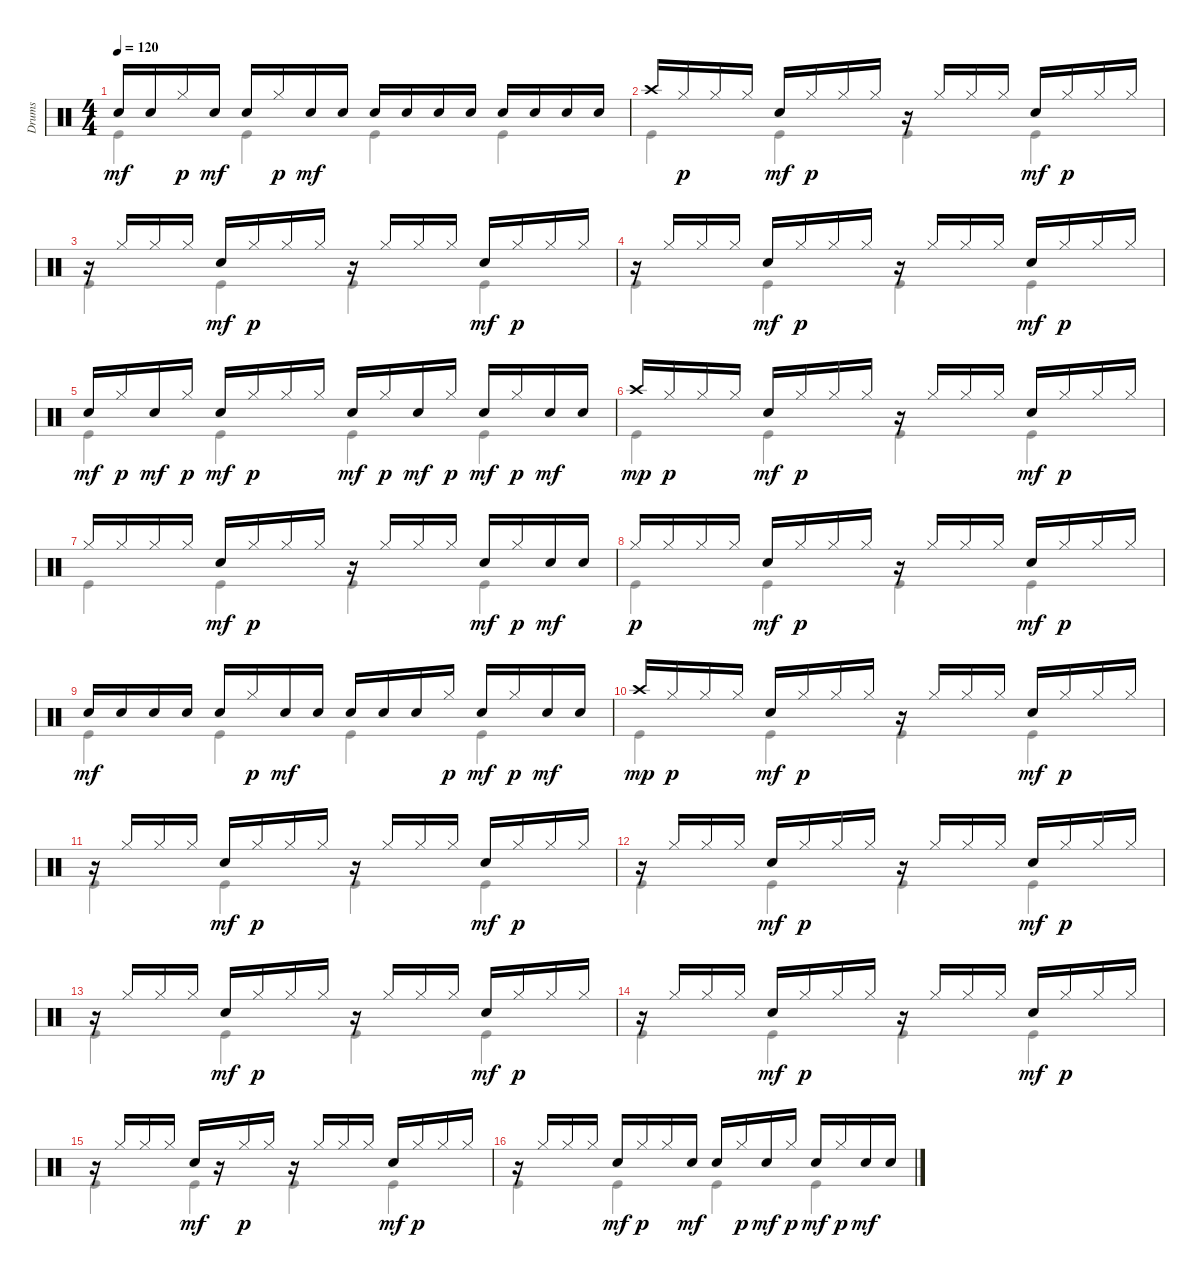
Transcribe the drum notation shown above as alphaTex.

\track ("Drums" "Drums") {instrument percussion}
\staff {score}
\articulation defaults
\voice
\ts (4 4)
\tempo 120
\clef neutral
\ks c "Snare (hit) 2".16{dy mf} "Snare (hit) 2".16 "Hi-Hat (closed)".16{dy p} "Snare (hit) 2".16{dy mf} "Snare (hit) 2".16 "Hi-Hat (closed)".16{dy p} "Snare (hit) 2".16{dy mf} "Snare (hit) 2".16 "Snare (hit) 2".16 "Snare (hit) 2".16 "Snare (hit) 2".16 "Snare (hit) 2".16 "Snare (hit) 2".16 "Snare (hit) 2".16 "Snare (hit) 2".16 "Snare (hit) 2".16
|
"Crash high (hit)".16 "Hi-Hat (closed)".16{dy p} "Hi-Hat (closed)".16 "Hi-Hat (closed)".16 "Snare (hit) 2".16{dy mf} "Hi-Hat (closed)".16{dy p} "Hi-Hat (closed)".16 "Hi-Hat (closed)".16 r.16 "Hi-Hat (closed)".16 "Hi-Hat (closed)".16 "Hi-Hat (closed)".16 "Snare (hit) 2".16{dy mf} "Hi-Hat (closed)".16{dy p} "Hi-Hat (closed)".16 "Hi-Hat (closed)".16 |
r.16 "Hi-Hat (closed)".16 "Hi-Hat (closed)".16 "Hi-Hat (closed)".16 "Snare (hit) 2".16{dy mf} "Hi-Hat (closed)".16{dy p} "Hi-Hat (closed)".16 "Hi-Hat (closed)".16 r.16 "Hi-Hat (closed)".16 "Hi-Hat (closed)".16 "Hi-Hat (closed)".16 "Snare (hit) 2".16{dy mf} "Hi-Hat (closed)".16{dy p} "Hi-Hat (closed)".16 "Hi-Hat (closed)".16 |
r.16 "Hi-Hat (closed)".16 "Hi-Hat (closed)".16 "Hi-Hat (closed)".16 "Snare (hit) 2".16{dy mf} "Hi-Hat (closed)".16{dy p} "Hi-Hat (closed)".16 "Hi-Hat (closed)".16 r.16 "Hi-Hat (closed)".16 "Hi-Hat (closed)".16 "Hi-Hat (closed)".16 "Snare (hit) 2".16{dy mf} "Hi-Hat (closed)".16{dy p} "Hi-Hat (closed)".16 "Hi-Hat (closed)".16 |
"Snare (hit) 2".16{dy mf} "Hi-Hat (closed)".16{dy p} "Snare (hit) 2".16{dy mf} "Hi-Hat (closed)".16{dy p} "Snare (hit) 2".16{dy mf} "Hi-Hat (closed)".16{dy p} "Hi-Hat (closed)".16 "Hi-Hat (closed)".16 "Snare (hit) 2".16{dy mf} "Hi-Hat (closed)".16{dy p} "Snare (hit) 2".16{dy mf} "Hi-Hat (closed)".16{dy p} "Snare (hit) 2".16{dy mf} "Hi-Hat (closed)".16{dy p} "Snare (hit) 2".16{dy mf} "Snare (hit) 2".16 |
"Crash high (hit)".16{dy mp} "Hi-Hat (closed)".16{dy p} "Hi-Hat (closed)".16 "Hi-Hat (closed)".16 "Snare (hit) 2".16{dy mf} "Hi-Hat (closed)".16{dy p} "Hi-Hat (closed)".16 "Hi-Hat (closed)".16 r.16 "Hi-Hat (closed)".16 "Hi-Hat (closed)".16 "Hi-Hat (closed)".16 "Snare (hit) 2".16{dy mf} "Hi-Hat (closed)".16{dy p} "Hi-Hat (closed)".16 "Hi-Hat (closed)".16 |
"Hi-Hat (closed)".16 "Hi-Hat (closed)".16 "Hi-Hat (closed)".16 "Hi-Hat (closed)".16 "Snare (hit) 2".16{dy mf} "Hi-Hat (closed)".16{dy p} "Hi-Hat (closed)".16 "Hi-Hat (closed)".16 r.16 "Hi-Hat (closed)".16 "Hi-Hat (closed)".16 "Hi-Hat (closed)".16 "Snare (hit) 2".16{dy mf} "Hi-Hat (closed)".16{dy p} "Snare (hit) 2".16{dy mf} "Snare (hit) 2".16 |
"Hi-Hat (closed)".16{dy p} "Hi-Hat (closed)".16 "Hi-Hat (closed)".16 "Hi-Hat (closed)".16 "Snare (hit) 2".16{dy mf} "Hi-Hat (closed)".16{dy p} "Hi-Hat (closed)".16 "Hi-Hat (closed)".16 r.16 "Hi-Hat (closed)".16 "Hi-Hat (closed)".16 "Hi-Hat (closed)".16 "Snare (hit) 2".16{dy mf} "Hi-Hat (closed)".16{dy p} "Hi-Hat (closed)".16 "Hi-Hat (closed)".16 |
"Snare (hit) 2".16{dy mf} "Snare (hit) 2".16 "Snare (hit) 2".16 "Snare (hit) 2".16 "Snare (hit) 2".16 "Hi-Hat (closed)".16{dy p} "Snare (hit) 2".16{dy mf} "Snare (hit) 2".16 "Snare (hit) 2".16 "Snare (hit) 2".16 "Snare (hit) 2".16 "Hi-Hat (closed)".16{dy p} "Snare (hit) 2".16{dy mf} "Hi-Hat (closed)".16{dy p} "Snare (hit) 2".16{dy mf} "Snare (hit) 2".16 |
"Crash high (hit)".16{dy mp} "Hi-Hat (closed)".16{dy p} "Hi-Hat (closed)".16 "Hi-Hat (closed)".16 "Snare (hit) 2".16{dy mf} "Hi-Hat (closed)".16{dy p} "Hi-Hat (closed)".16 "Hi-Hat (closed)".16 r.16 "Hi-Hat (closed)".16 "Hi-Hat (closed)".16 "Hi-Hat (closed)".16 "Snare (hit) 2".16{dy mf} "Hi-Hat (closed)".16{dy p} "Hi-Hat (closed)".16 "Hi-Hat (closed)".16 |
r.16 "Hi-Hat (closed)".16 "Hi-Hat (closed)".16 "Hi-Hat (closed)".16 "Snare (hit) 2".16{dy mf} "Hi-Hat (closed)".16{dy p} "Hi-Hat (closed)".16 "Hi-Hat (closed)".16 r.16 "Hi-Hat (closed)".16 "Hi-Hat (closed)".16 "Hi-Hat (closed)".16 "Snare (hit) 2".16{dy mf} "Hi-Hat (closed)".16{dy p} "Hi-Hat (closed)".16 "Hi-Hat (closed)".16 |
r.16 "Hi-Hat (closed)".16 "Hi-Hat (closed)".16 "Hi-Hat (closed)".16 "Snare (hit) 2".16{dy mf} "Hi-Hat (closed)".16{dy p} "Hi-Hat (closed)".16 "Hi-Hat (closed)".16 r.16 "Hi-Hat (closed)".16 "Hi-Hat (closed)".16 "Hi-Hat (closed)".16 "Snare (hit) 2".16{dy mf} "Hi-Hat (closed)".16{dy p} "Hi-Hat (closed)".16 "Hi-Hat (closed)".16 |
r.16 "Hi-Hat (closed)".16 "Hi-Hat (closed)".16 "Hi-Hat (closed)".16 "Snare (hit) 2".16{dy mf} "Hi-Hat (closed)".16{dy p} "Hi-Hat (closed)".16 "Hi-Hat (closed)".16 r.16 "Hi-Hat (closed)".16 "Hi-Hat (closed)".16 "Hi-Hat (closed)".16 "Snare (hit) 2".16{dy mf} "Hi-Hat (closed)".16{dy p} "Hi-Hat (closed)".16 "Hi-Hat (closed)".16 |
r.16 "Hi-Hat (closed)".16 "Hi-Hat (closed)".16 "Hi-Hat (closed)".16 "Snare (hit) 2".16{dy mf} "Hi-Hat (closed)".16{dy p} "Hi-Hat (closed)".16 "Hi-Hat (closed)".16 r.16 "Hi-Hat (closed)".16 "Hi-Hat (closed)".16 "Hi-Hat (closed)".16 "Snare (hit) 2".16{dy mf} "Hi-Hat (closed)".16{dy p} "Hi-Hat (closed)".16 "Hi-Hat (closed)".16 |
r.16 "Hi-Hat (closed)".16 "Hi-Hat (closed)".16 "Hi-Hat (closed)".16 "Snare (hit) 2".16{dy mf} r.16 "Hi-Hat (closed)".16{dy p} "Hi-Hat (closed)".16 r.16 "Hi-Hat (closed)".16 "Hi-Hat (closed)".16 "Hi-Hat (closed)".16 "Snare (hit) 2".16{dy mf} "Hi-Hat (closed)".16{dy p} "Hi-Hat (closed)".16 "Hi-Hat (closed)".16 |
r.16 "Hi-Hat (closed)".16 "Hi-Hat (closed)".16 "Hi-Hat (closed)".16 "Snare (hit) 2".16{dy mf} "Hi-Hat (closed)".16{dy p} "Hi-Hat (closed)".16 "Snare (hit) 2".16{dy mf} "Snare (hit) 2".16 "Hi-Hat (closed)".16{dy p} "Snare (hit) 2".16{dy mf} "Hi-Hat (closed)".16{dy p} "Snare (hit) 2".16{dy mf} "Hi-Hat (closed)".16{dy p} "Snare (hit) 2".16{dy mf} "Snare (hit) 2".16
\voice
\clef neutral
\ottava regular
\simile none
\ks c "Kick (hit)".4{dy mf} "Kick (hit)".4 "Kick (hit)".4 "Kick (hit)".4
|
"Kick (hit)".4 "Kick (hit)".4 "Kick (hit)".4 "Kick (hit)".4 |
"Kick (hit)".4 "Kick (hit)".4 "Kick (hit)".4 "Kick (hit)".4 |
"Kick (hit)".4 "Kick (hit)".4 "Kick (hit)".4 "Kick (hit)".4 |
"Kick (hit)".4 "Kick (hit)".4 "Kick (hit)".4 "Kick (hit)".4 |
"Kick (hit)".4 "Kick (hit)".4 "Kick (hit)".4 "Kick (hit)".4 |
"Kick (hit)".4 "Kick (hit)".4 "Kick (hit)".4 "Kick (hit)".4 |
"Kick (hit)".4 "Kick (hit)".4 "Kick (hit)".4 "Kick (hit)".4 |
"Kick (hit)".4 "Kick (hit)".4 "Kick (hit)".4 "Kick (hit)".4 |
"Kick (hit)".4 "Kick (hit)".4 "Kick (hit)".4 "Kick (hit)".4 |
"Kick (hit)".4 "Kick (hit)".4 "Kick (hit)".4 "Kick (hit)".4 |
"Kick (hit)".4 "Kick (hit)".4 "Kick (hit)".4 "Kick (hit)".4 |
"Kick (hit)".4 "Kick (hit)".4 "Kick (hit)".4 "Kick (hit)".4 |
"Kick (hit)".4 "Kick (hit)".4 "Kick (hit)".4 "Kick (hit)".4 |
"Kick (hit)".4 "Kick (hit)".4 "Kick (hit)".4 "Kick (hit)".4 |
"Kick (hit)".4 "Kick (hit)".4 "Kick (hit)".4 "Kick (hit)".4
